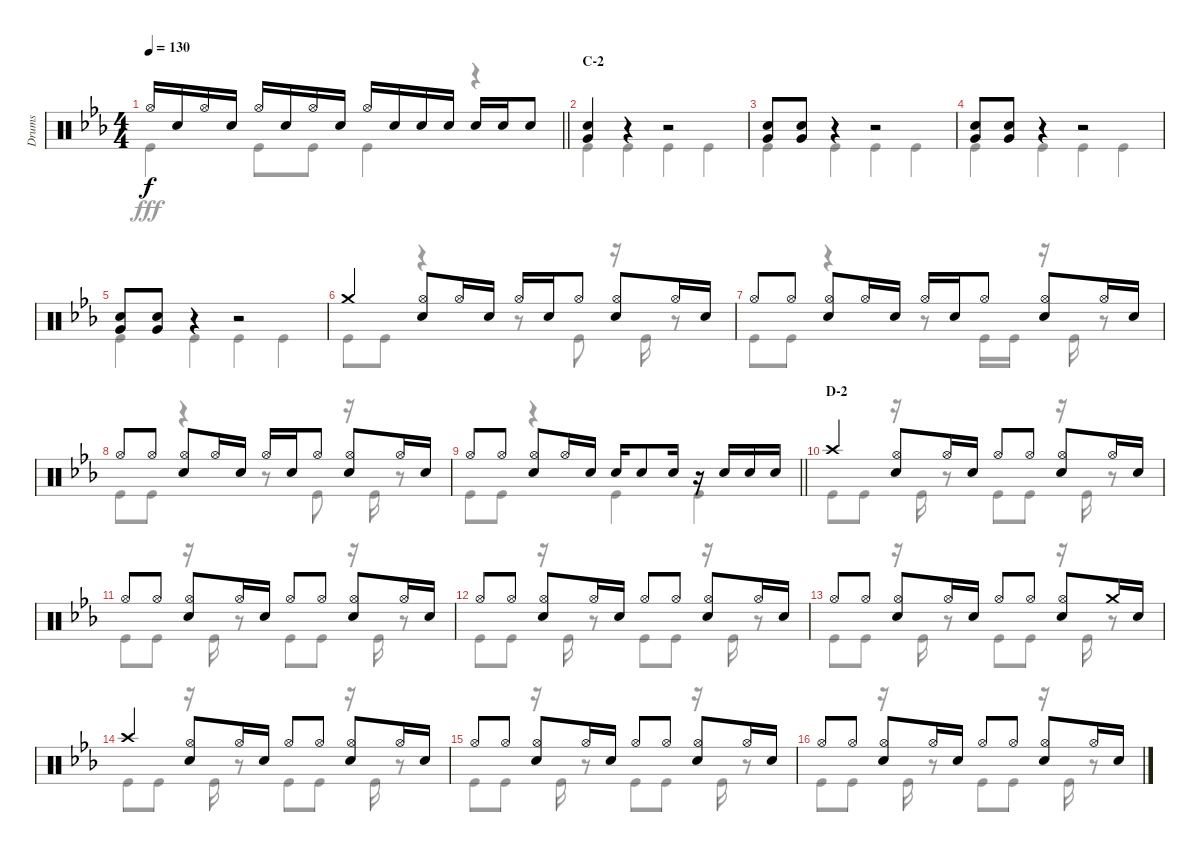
\track ("Drums" "Drums") {instrument percussion}
\staff {score}
\articulation defaults
\voice
\ts (4 4)
\tempo 130
\clef neutral
\barLineRight lightlight
\ks eb "Hi-Hat (open)".16{dy f} "Snare (hit) 2".16 "Hi-Hat (open)".16 "Snare (hit) 2".16 "Hi-Hat (open)".16 "Snare (hit) 2".16 "Hi-Hat (open)".16 "Snare (hit) 2".16 "Hi-Hat (open)".16 "Snare (hit) 2".16 "Snare (hit) 2".16 "Snare (hit) 2".16 "Snare (hit) 2".16 "Snare (hit) 2".16 "Snare (hit) 2".8
|
\section ("" "C-2")
("Snare (hit) 2" "Very Low Tom (hit)").4 r.4 r.2 |
("Snare (hit) 2" "Very Low Tom (hit)").8 ("Snare (hit) 2" "Very Low Tom (hit)").8 r.4 r.2 |
("Snare (hit) 2" "Very Low Tom (hit)").8 ("Snare (hit) 2" "Very Low Tom (hit)").8 r.4 r.2 |
("Snare (hit) 2" "Very Low Tom (hit)").8 ("Snare (hit) 2" "Very Low Tom (hit)").8 r.4 r.2 |
"Crash medium (hit)".4 ("Hi-Hat (open)" "Snare (hit) 2").8 "Hi-Hat (open)".16 "Snare (hit) 2".16 "Hi-Hat (open)".16 "Snare (hit) 2".16 "Hi-Hat (open)".8 ("Hi-Hat (open)" "Snare (hit) 2").8 "Hi-Hat (open)".16 "Snare (hit) 2".16 |
"Hi-Hat (open)".8 "Hi-Hat (open)".8 ("Hi-Hat (open)" "Snare (hit) 2").8 "Hi-Hat (open)".16 "Snare (hit) 2".16 "Hi-Hat (open)".16 "Snare (hit) 2".16 "Hi-Hat (open)".8 ("Hi-Hat (open)" "Snare (hit) 2").8 "Hi-Hat (open)".16 "Snare (hit) 2".16 |
"Hi-Hat (open)".8 "Hi-Hat (open)".8 ("Hi-Hat (open)" "Snare (hit) 2").8 "Hi-Hat (open)".16 "Snare (hit) 2".16 "Hi-Hat (open)".16 "Snare (hit) 2".16 "Hi-Hat (open)".8 ("Hi-Hat (open)" "Snare (hit) 2").8 "Hi-Hat (open)".16 "Snare (hit) 2".16 |
\barLineRight lightlight "Hi-Hat (open)".8 "Hi-Hat (open)".8
("Hi-Hat (open)" "Snare (hit) 2").8 "Hi-Hat (open)".16 "Snare (hit) 2".16 "Snare (hit) 2".16 "Snare (hit) 2".8 "Snare (hit) 2".16 r.16 "Snare (hit) 2".16 "Snare (hit) 2".16 "Snare (hit) 2".16 |
\section ("" "D-2")
"Crash high (hit)".4 ("Hi-Hat (open)" "Snare (hit) 2").8 "Hi-Hat (open)".16 "Snare (hit) 2".16 "Hi-Hat (open)".8 "Hi-Hat (open)".8 ("Hi-Hat (open)" "Snare (hit) 2").8 "Hi-Hat (open)".16 "Snare (hit) 2".16 |
"Hi-Hat (open)".8 "Hi-Hat (open)".8 ("Hi-Hat (open)" "Snare (hit) 2").8 "Hi-Hat (open)".16 "Snare (hit) 2".16 "Hi-Hat (open)".8 "Hi-Hat (open)".8 ("Hi-Hat (open)" "Snare (hit) 2").8 "Hi-Hat (open)".16 "Snare (hit) 2".16 |
"Hi-Hat (open)".8 "Hi-Hat (open)".8 ("Hi-Hat (open)" "Snare (hit) 2").8 "Hi-Hat (open)".16 "Snare (hit) 2".16 "Hi-Hat (open)".8 "Hi-Hat (open)".8 ("Hi-Hat (open)" "Snare (hit) 2").8 "Hi-Hat (open)".16 "Snare (hit) 2".16 |
"Hi-Hat (open)".8 "Hi-Hat (open)".8 ("Hi-Hat (open)" "Snare (hit) 2").8 "Hi-Hat (open)".16 "Snare (hit) 2".16 "Hi-Hat (open)".8 "Hi-Hat (open)".8 ("Hi-Hat (open)" "Snare (hit) 2").8 "Crash medium (hit)".16 "Snare (hit) 2".16 |
"Crash high (hit)".4 ("Hi-Hat (open)" "Snare (hit) 2").8 "Hi-Hat (open)".16 "Snare (hit) 2".16 "Hi-Hat (open)".8 "Hi-Hat (open)".8 ("Hi-Hat (open)" "Snare (hit) 2").8 "Hi-Hat (open)".16 "Snare (hit) 2".16 |
"Hi-Hat (open)".8 "Hi-Hat (open)".8 ("Hi-Hat (open)" "Snare (hit) 2").8 "Hi-Hat (open)".16 "Snare (hit) 2".16 "Hi-Hat (open)".8 "Hi-Hat (open)".8 ("Hi-Hat (open)" "Snare (hit) 2").8 "Hi-Hat (open)".16 "Snare (hit) 2".16 |
"Hi-Hat (open)".8 "Hi-Hat (open)".8 ("Hi-Hat (open)" "Snare (hit) 2").8 "Hi-Hat (open)".16 "Snare (hit) 2".16 "Hi-Hat (open)".8 "Hi-Hat (open)".8 ("Hi-Hat (open)" "Snare (hit) 2").8 "Hi-Hat (open)".16 "Snare (hit) 2".16
\voice
\clef neutral
\ottava regular
\simile none
\barLineRight lightlight
\ks eb "Kick (hit)".4{dy fff} "Kick (hit)".8 "Kick (hit)".8 "Kick (hit)".4
r.4 |
"Kick (hit)".4 "Kick (hit)".4 "Kick (hit)".4 "Kick (hit)".4 |
"Kick (hit)".4 "Kick (hit)".4 "Kick (hit)".4 "Kick (hit)".4 |
"Kick (hit)".4 "Kick (hit)".4 "Kick (hit)".4 "Kick (hit)".4 |
"Kick (hit)".4 "Kick (hit)".4 "Kick (hit)".4 "Kick (hit)".4 |
"Kick (hit)".8 "Kick (hit)".8 r.4 r.8 "Kick (hit)".8 r.16 "Kick (hit)".16 r.8 |
"Kick (hit)".8 "Kick (hit)".8 r.4 r.8 "Kick (hit)".16 "Kick (hit)".16 r.16 "Kick (hit)".16 r.8 |
"Kick (hit)".8 "Kick (hit)".8 r.4 r.8 "Kick (hit)".8 r.16 "Kick (hit)".16 r.8 |
\barLineRight lightlight "Kick (hit)".8 "Kick (hit)".8
r.4 "Kick (hit)".4 "Kick (hit)".4 |
"Kick (hit)".8 "Kick (hit)".8 r.16 "Kick (hit)".16 r.8 "Kick (hit)".8 "Kick (hit)".8 r.16 "Kick (hit)".16 r.8 |
"Kick (hit)".8 "Kick (hit)".8 r.16 "Kick (hit)".16 r.8 "Kick (hit)".8 "Kick (hit)".8 r.16 "Kick (hit)".16 r.8 |
"Kick (hit)".8 "Kick (hit)".8 r.16 "Kick (hit)".16 r.8 "Kick (hit)".8 "Kick (hit)".8 r.16 "Kick (hit)".16 r.8 |
"Kick (hit)".8 "Kick (hit)".8 r.16 "Kick (hit)".16 r.8 "Kick (hit)".8 "Kick (hit)".8 r.16 "Kick (hit)".16 r.8 |
"Kick (hit)".8 "Kick (hit)".8 r.16 "Kick (hit)".16 r.8 "Kick (hit)".8 "Kick (hit)".8 r.16 "Kick (hit)".16 r.8 |
"Kick (hit)".8 "Kick (hit)".8 r.16 "Kick (hit)".16 r.8 "Kick (hit)".8 "Kick (hit)".8 r.16 "Kick (hit)".16 r.8 |
"Kick (hit)".8 "Kick (hit)".8 r.16 "Kick (hit)".16 r.8 "Kick (hit)".8 "Kick (hit)".8 r.16 "Kick (hit)".16 r.8
